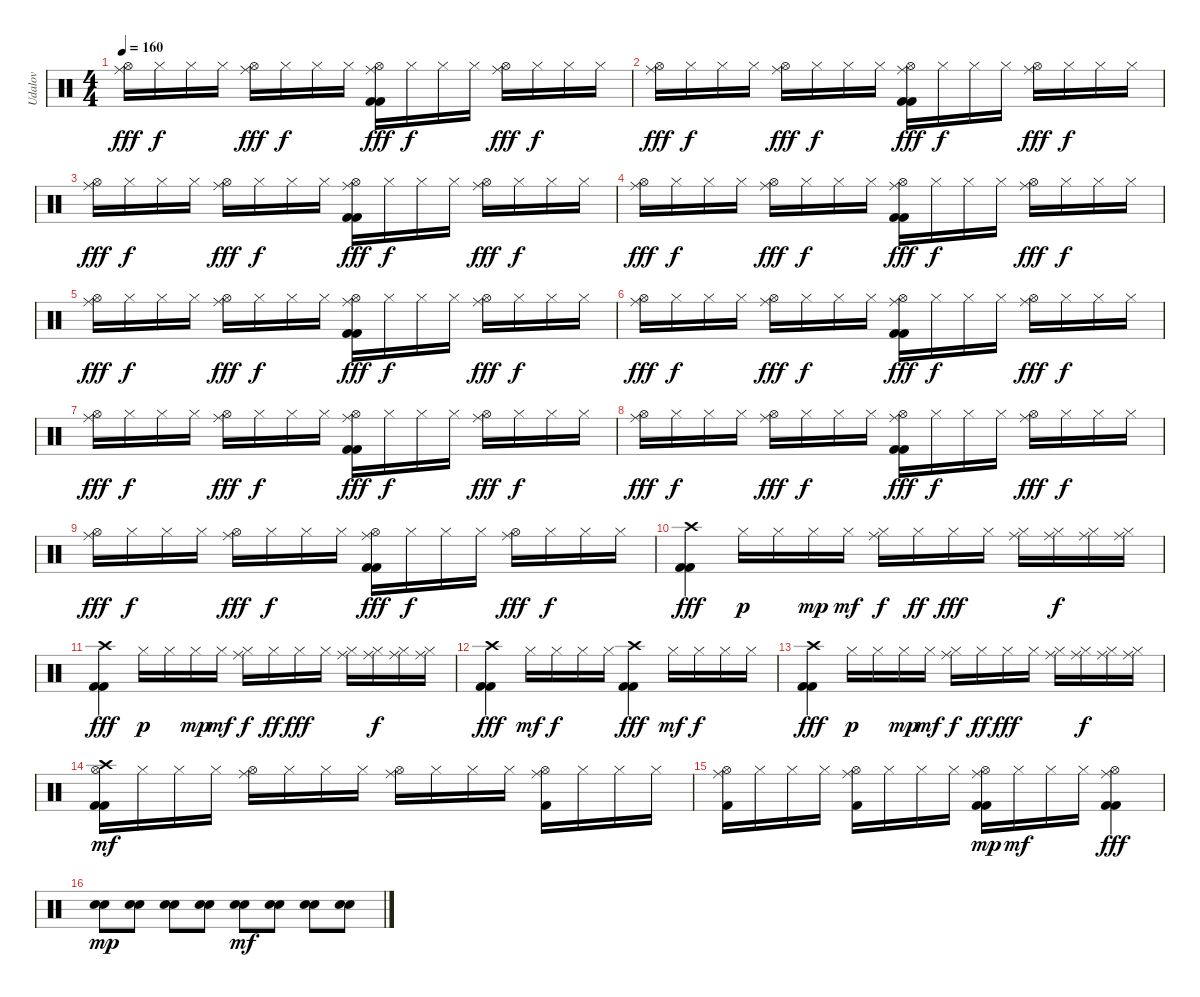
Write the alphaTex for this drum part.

\track ("Udalov" "Udalov") {instrument percussion}
\staff {score}
\articulation defaults
\ts (4 4)
\tempo 160
\clef neutral
\ks c
("Hi-Hat (open)" "Ride (middle)").16{dy fff} "Hi-Hat (closed)".16{dy f} "Hi-Hat (closed)".16 "Hi-Hat (closed)".16 ("Hi-Hat (open)" "Ride (middle)").16{dy fff} "Hi-Hat (closed)".16{dy f} "Hi-Hat (closed)".16 "Hi-Hat (closed)".16 ("Hi-Hat (open)" "Ride (middle)" "Kick (hit) 2" "Kick (hit) 2").16{dy fff} "Hi-Hat (closed)".16{dy f} "Hi-Hat (closed)".16 "Hi-Hat (closed)".16 ("Hi-Hat (open)" "Ride (middle)").16{dy fff} "Hi-Hat (closed)".16{dy f} "Hi-Hat (closed)".16 "Hi-Hat (closed)".16 |
("Hi-Hat (open)" "Ride (middle)").16{dy fff} "Hi-Hat (closed)".16{dy f} "Hi-Hat (closed)".16 "Hi-Hat (closed)".16 ("Hi-Hat (open)" "Ride (middle)").16{dy fff} "Hi-Hat (closed)".16{dy f} "Hi-Hat (closed)".16 "Hi-Hat (closed)".16 ("Hi-Hat (open)" "Ride (middle)" "Kick (hit) 2" "Kick (hit) 2").16{dy fff} "Hi-Hat (closed)".16{dy f} "Hi-Hat (closed)".16 "Hi-Hat (closed)".16 ("Hi-Hat (open)" "Ride (middle)").16{dy fff} "Hi-Hat (closed)".16{dy f} "Hi-Hat (closed)".16 "Hi-Hat (closed)".16 |
("Hi-Hat (open)" "Ride (middle)").16{dy fff} "Hi-Hat (closed)".16{dy f} "Hi-Hat (closed)".16 "Hi-Hat (closed)".16 ("Hi-Hat (open)" "Ride (middle)").16{dy fff} "Hi-Hat (closed)".16{dy f} "Hi-Hat (closed)".16 "Hi-Hat (closed)".16 ("Hi-Hat (open)" "Ride (middle)" "Kick (hit) 2" "Kick (hit) 2").16{dy fff} "Hi-Hat (closed)".16{dy f} "Hi-Hat (closed)".16 "Hi-Hat (closed)".16 ("Hi-Hat (open)" "Ride (middle)").16{dy fff} "Hi-Hat (closed)".16{dy f} "Hi-Hat (closed)".16 "Hi-Hat (closed)".16 |
("Hi-Hat (open)" "Ride (middle)").16{dy fff} "Hi-Hat (closed)".16{dy f} "Hi-Hat (closed)".16 "Hi-Hat (closed)".16 ("Hi-Hat (open)" "Ride (middle)").16{dy fff} "Hi-Hat (closed)".16{dy f} "Hi-Hat (closed)".16 "Hi-Hat (closed)".16 ("Hi-Hat (open)" "Ride (middle)" "Kick (hit) 2" "Kick (hit) 2").16{dy fff} "Hi-Hat (closed)".16{dy f} "Hi-Hat (closed)".16 "Hi-Hat (closed)".16 ("Hi-Hat (open)" "Ride (middle)").16{dy fff} "Hi-Hat (closed)".16{dy f} "Hi-Hat (closed)".16 "Hi-Hat (closed)".16 |
("Hi-Hat (open)" "Ride (middle)").16{dy fff} "Hi-Hat (closed)".16{dy f} "Hi-Hat (closed)".16 "Hi-Hat (closed)".16 ("Hi-Hat (open)" "Ride (middle)").16{dy fff} "Hi-Hat (closed)".16{dy f} "Hi-Hat (closed)".16 "Hi-Hat (closed)".16 ("Hi-Hat (open)" "Ride (middle)" "Kick (hit) 2" "Kick (hit) 2").16{dy fff} "Hi-Hat (closed)".16{dy f} "Hi-Hat (closed)".16 "Hi-Hat (closed)".16 ("Hi-Hat (open)" "Ride (middle)").16{dy fff} "Hi-Hat (closed)".16{dy f} "Hi-Hat (closed)".16 "Hi-Hat (closed)".16 |
("Hi-Hat (open)" "Ride (middle)").16{dy fff} "Hi-Hat (closed)".16{dy f} "Hi-Hat (closed)".16 "Hi-Hat (closed)".16 ("Hi-Hat (open)" "Ride (middle)").16{dy fff} "Hi-Hat (closed)".16{dy f} "Hi-Hat (closed)".16 "Hi-Hat (closed)".16 ("Hi-Hat (open)" "Ride (middle)" "Kick (hit) 2" "Kick (hit) 2").16{dy fff} "Hi-Hat (closed)".16{dy f} "Hi-Hat (closed)".16 "Hi-Hat (closed)".16 ("Hi-Hat (open)" "Ride (middle)").16{dy fff} "Hi-Hat (closed)".16{dy f} "Hi-Hat (closed)".16 "Hi-Hat (closed)".16 |
("Hi-Hat (open)" "Ride (middle)").16{dy fff} "Hi-Hat (closed)".16{dy f} "Hi-Hat (closed)".16 "Hi-Hat (closed)".16 ("Hi-Hat (open)" "Ride (middle)").16{dy fff} "Hi-Hat (closed)".16{dy f} "Hi-Hat (closed)".16 "Hi-Hat (closed)".16 ("Hi-Hat (open)" "Ride (middle)" "Kick (hit) 2" "Kick (hit) 2").16{dy fff} "Hi-Hat (closed)".16{dy f} "Hi-Hat (closed)".16 "Hi-Hat (closed)".16 ("Hi-Hat (open)" "Ride (middle)").16{dy fff} "Hi-Hat (closed)".16{dy f} "Hi-Hat (closed)".16 "Hi-Hat (closed)".16 |
("Hi-Hat (open)" "Ride (middle)").16{dy fff} "Hi-Hat (closed)".16{dy f} "Hi-Hat (closed)".16 "Hi-Hat (closed)".16 ("Hi-Hat (open)" "Ride (middle)").16{dy fff} "Hi-Hat (closed)".16{dy f} "Hi-Hat (closed)".16 "Hi-Hat (closed)".16 ("Hi-Hat (open)" "Ride (middle)" "Kick (hit) 2" "Kick (hit) 2").16{dy fff} "Hi-Hat (closed)".16{dy f} "Hi-Hat (closed)".16 "Hi-Hat (closed)".16 ("Hi-Hat (open)" "Ride (middle)").16{dy fff} "Hi-Hat (closed)".16{dy f} "Hi-Hat (closed)".16 "Hi-Hat (closed)".16 |
("Hi-Hat (open)" "Ride (middle)").16{dy fff} "Hi-Hat (closed)".16{dy f} "Hi-Hat (closed)".16 "Hi-Hat (closed)".16 ("Hi-Hat (open)" "Ride (middle)").16{dy fff} "Hi-Hat (closed)".16{dy f} "Hi-Hat (closed)".16 "Hi-Hat (closed)".16 ("Hi-Hat (open)" "Ride (middle)" "Kick (hit) 2" "Kick (hit) 2").16{dy fff} "Hi-Hat (closed)".16{dy f} "Hi-Hat (closed)".16 "Hi-Hat (closed)".16 ("Hi-Hat (open)" "Ride (middle)").16{dy fff} "Hi-Hat (closed)".16{dy f} "Hi-Hat (closed)".16 "Hi-Hat (closed)".16 |
("Crash high (hit)" "Kick (hit) 2" "Kick (hit) 2").4{dy fff} "Hi-Hat (closed)".16{dy p} "Hi-Hat (closed)".16 "Hi-Hat (closed)".16{dy mp} "Hi-Hat (closed)".16{dy mf} ("Hi-Hat (closed)" "Ride (middle)").16{dy f} "Hi-Hat (closed)".16{dy ff} "Hi-Hat (closed)".16{dy fff} "Hi-Hat (closed)".16 ("Hi-Hat (closed)" "Ride (middle)").16 ("Hi-Hat (closed)" "Ride (middle)").16{dy f} ("Hi-Hat (closed)" "Ride (middle)").16 ("Hi-Hat (closed)" "Ride (middle)").16 |
("Crash high (hit)" "Kick (hit) 2" "Kick (hit) 2").4{dy fff} "Hi-Hat (closed)".16{dy p} "Hi-Hat (closed)".16 "Hi-Hat (closed)".16{dy mp} "Hi-Hat (closed)".16{dy mf} ("Hi-Hat (closed)" "Ride (middle)").16{dy f} "Hi-Hat (closed)".16{dy ff} "Hi-Hat (closed)".16{dy fff} "Hi-Hat (closed)".16 ("Hi-Hat (closed)" "Ride (middle)").16 ("Hi-Hat (closed)" "Ride (middle)").16{dy f} ("Hi-Hat (closed)" "Ride (middle)").16 ("Hi-Hat (closed)" "Ride (middle)").16 |
("Crash high (hit)" "Kick (hit) 2" "Kick (hit) 2").4{dy fff} "Hi-Hat (closed)".16{dy mf} "Hi-Hat (closed)".16{dy f} "Hi-Hat (closed)".16 "Hi-Hat (closed)".16 ("Crash high (hit)" "Kick (hit) 2" "Kick (hit) 2").4{dy fff} "Hi-Hat (closed)".16{dy mf} "Hi-Hat (closed)".16{dy f} "Hi-Hat (closed)".16 "Hi-Hat (closed)".16 |
("Crash high (hit)" "Kick (hit) 2" "Kick (hit) 2").4{dy fff} "Hi-Hat (closed)".16{dy p} "Hi-Hat (closed)".16 "Hi-Hat (closed)".16{dy mp} "Hi-Hat (closed)".16{dy mf} ("Hi-Hat (closed)" "Ride (middle)").16{dy f} "Hi-Hat (closed)".16{dy ff} "Hi-Hat (closed)".16{dy fff} "Hi-Hat (closed)".16 ("Hi-Hat (closed)" "Ride (middle)").16 ("Hi-Hat (closed)" "Ride (middle)").16{dy f} ("Hi-Hat (closed)" "Ride (middle)").16 ("Hi-Hat (closed)" "Ride (middle)").16 |
("Crash high (hit)" "Hi-Hat (open)" "Kick (hit) 2" "Kick (hit) 2").16{dy mf} "Hi-Hat (closed)".16 "Hi-Hat (closed)".16 "Hi-Hat (closed)".16 ("Hi-Hat (open)" "Ride (middle)").16 "Hi-Hat (closed)".16 "Hi-Hat (closed)".16 "Hi-Hat (closed)".16 ("Hi-Hat (open)" "Ride (middle)").16 "Hi-Hat (closed)".16 "Hi-Hat (closed)".16 "Hi-Hat (closed)".16 ("Hi-Hat (open)" "Ride (middle)" "Kick (hit) 2").16 "Hi-Hat (closed)".16 "Hi-Hat (closed)".16 "Hi-Hat (closed)".16 |
("Hi-Hat (open)" "Ride (middle)" "Kick (hit) 2").16 "Hi-Hat (closed)".16 "Hi-Hat (closed)".16 "Hi-Hat (closed)".16 ("Hi-Hat (open)" "Ride (middle)" "Kick (hit) 2").16 "Hi-Hat (closed)".16 "Hi-Hat (closed)".16 "Hi-Hat (closed)".16 ("Hi-Hat (open)" "Ride (middle)" "Kick (hit) 2" "Kick (hit) 2").16{dy mp} "Hi-Hat (closed)".16{dy mf} "Hi-Hat (closed)".16 "Hi-Hat (closed)".16 ("Hi-Hat (open)" "Ride (middle)" "Kick (hit) 2" "Kick (hit) 2").4{dy fff} |
("Electric Snare (hit)" "Electric Snare (hit)").8{dy mp} ("Electric Snare (hit)" "Electric Snare (hit)").8 ("Electric Snare (hit)" "Electric Snare (hit)").8 ("Electric Snare (hit)" "Electric Snare (hit)").8 ("Electric Snare (hit)" "Electric Snare (hit)").8{dy mf} ("Electric Snare (hit)" "Electric Snare (hit)").8 ("Electric Snare (hit)" "Electric Snare (hit)").8 ("Electric Snare (hit)" "Electric Snare (hit)").8
